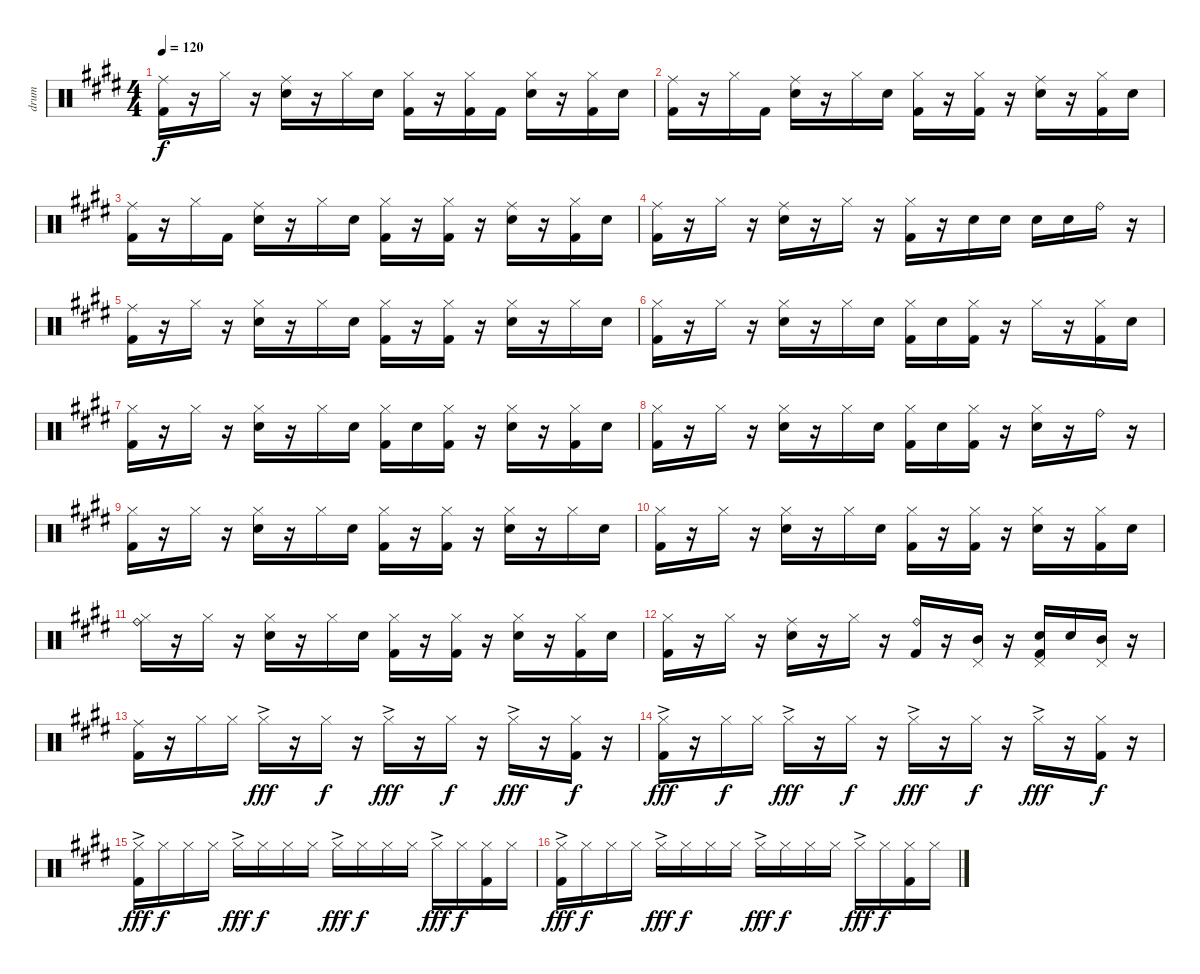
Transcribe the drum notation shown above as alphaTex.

\track ("drum" "drum") {instrument percussion}
\staff {score}
\articulation defaults
\ts (4 4)
\tempo 120
\clef neutral
\ks e
("Kick (hit) 2" "Ride (middle)").16{dy f} r.16 "Hi-Hat (closed)".16 r.16 ("Snare (hit) 2" "Ride (middle)").16 r.16 "Hi-Hat (closed)".16 "Snare (hit) 2".16 ("Kick (hit) 2" "Hi-Hat (closed)").16 r.16 ("Kick (hit) 2" "Hi-Hat (closed)").16 "Kick (hit) 2".16 ("Snare (hit) 2" "Hi-Hat (closed)").16 r.16 ("Kick (hit) 2" "Hi-Hat (closed)").16 "Snare (hit) 2".16 |
("Kick (hit) 2" "Ride (middle)").16 r.16 "Hi-Hat (closed)".16 "Kick (hit) 2".16 ("Snare (hit) 2" "Ride (middle)").16 r.16 "Hi-Hat (closed)".16 "Snare (hit) 2".16 ("Kick (hit) 2" "Hi-Hat (closed)").16 r.16 ("Kick (hit) 2" "Hi-Hat (closed)").16 r.16 ("Snare (hit) 2" "Ride (middle)").16 r.16 ("Kick (hit) 2" "Hi-Hat (closed)").16 "Snare (hit) 2".16 |
("Kick (hit) 2" "Ride (middle)").16 r.16 "Hi-Hat (closed)".16 "Kick (hit) 2".16 ("Snare (hit) 2" "Ride (middle)").16 r.16 "Hi-Hat (closed)".16 "Snare (hit) 2".16 ("Kick (hit) 2" "Hi-Hat (closed)").16 r.16 ("Kick (hit) 2" "Hi-Hat (closed)").16 r.16 ("Snare (hit) 2" "Ride (middle)").16 r.16 ("Kick (hit) 2" "Hi-Hat (closed)").16 "Snare (hit) 2".16 |
("Kick (hit) 2" "Ride (middle)").16 r.16 "Hi-Hat (closed)".16 r.16 ("Snare (hit) 2" "Ride (middle)").16 r.16 "Hi-Hat (closed)".16 r.16 ("Kick (hit) 2" "Hi-Hat (closed)").16 r.16 "Snare (hit) 2".16 "Snare (hit) 2".16 "Snare (hit) 2".16 "Snare (hit) 2".16 "Ride (bell)".16 r.16 |
("Kick (hit) 2" "Ride (middle)").16 r.16 "Hi-Hat (closed)".16 r.16 ("Snare (hit) 2" "Hi-Hat (closed)").16 r.16 "Hi-Hat (closed)".16 "Snare (hit) 2".16 ("Kick (hit) 2" "Hi-Hat (closed)").16 r.16 ("Kick (hit) 2" "Hi-Hat (closed)").16 r.16 ("Snare (hit) 2" "Hi-Hat (closed)").16 r.16 "Hi-Hat (closed)".16 "Snare (hit) 2".16 |
("Kick (hit) 2" "Hi-Hat (closed)").16 r.16 "Hi-Hat (closed)".16 r.16 ("Snare (hit) 2" "Hi-Hat (closed)").16 r.16 "Hi-Hat (closed)".16 "Snare (hit) 2".16 ("Kick (hit) 2" "Hi-Hat (closed)").16 "Snare (hit) 2".16 ("Kick (hit) 2" "Hi-Hat (closed)").16 r.16 "Hi-Hat (closed)".16 r.16 ("Kick (hit) 2" "Hi-Hat (closed)").16 "Snare (hit) 2".16 |
("Kick (hit) 2" "Hi-Hat (closed)").16 r.16 "Hi-Hat (closed)".16 r.16 ("Snare (hit) 2" "Hi-Hat (closed)").16 r.16 "Hi-Hat (closed)".16 "Snare (hit) 2".16 ("Kick (hit) 2" "Hi-Hat (closed)").16 "Snare (hit) 2".16 ("Kick (hit) 2" "Hi-Hat (closed)").16 r.16 ("Snare (hit) 2" "Hi-Hat (closed)").16 r.16 ("Kick (hit) 2" "Hi-Hat (closed)").16 "Snare (hit) 2".16 |
("Kick (hit) 2" "Hi-Hat (closed)").16 r.16 "Hi-Hat (closed)".16 r.16 ("Snare (hit) 2" "Hi-Hat (closed)").16 r.16 "Hi-Hat (closed)".16 "Snare (hit) 2".16 ("Kick (hit) 2" "Hi-Hat (closed)").16 "Snare (hit) 2".16 ("Kick (hit) 2" "Hi-Hat (closed)").16 r.16 ("Snare (hit) 2" "Hi-Hat (closed)").16 r.16 "Ride (bell)".16 r.16 |
("Kick (hit) 2" "Hi-Hat (closed)").16 r.16 "Hi-Hat (closed)".16 r.16 ("Snare (hit) 2" "Hi-Hat (closed)").16 r.16 "Hi-Hat (closed)".16 "Snare (hit) 2".16 ("Kick (hit) 2" "Hi-Hat (closed)").16 r.16 ("Kick (hit) 2" "Hi-Hat (closed)").16 r.16 ("Snare (hit) 2" "Hi-Hat (closed)").16 r.16 "Hi-Hat (closed)".16 "Snare (hit) 2".16 |
("Kick (hit) 2" "Hi-Hat (closed)").16 r.16 "Hi-Hat (closed)".16 r.16 ("Snare (hit) 2" "Hi-Hat (closed)").16 r.16 "Hi-Hat (closed)".16 "Snare (hit) 2".16 ("Kick (hit) 2" "Hi-Hat (closed)").16 r.16 ("Kick (hit) 2" "Hi-Hat (closed)").16 r.16 ("Snare (hit) 2" "Hi-Hat (closed)").16 r.16 ("Kick (hit) 2" "Hi-Hat (closed)").16 "Snare (hit) 2".16 |
("Ride (bell)" "Hi-Hat (closed)").16 r.16 "Hi-Hat (closed)".16 r.16 ("Snare (hit) 2" "Hi-Hat (closed)").16 r.16 "Hi-Hat (closed)".16 "Snare (hit) 2".16 ("Kick (hit) 2" "Hi-Hat (closed)").16 r.16 ("Kick (hit) 2" "Hi-Hat (closed)").16 r.16 ("Snare (hit) 2" "Hi-Hat (closed)").16 r.16 ("Kick (hit) 2" "Hi-Hat (closed)").16 "Snare (hit) 2".16 |
("Kick (hit) 2" "Hi-Hat (closed)").16 r.16 "Hi-Hat (closed)".16 r.16 ("Snare (hit) 2" "Ride (middle)").16 r.16 "Hi-Hat (closed)".16 r.16 ("Kick (hit) 2" "Ride (bell)").16 r.16 ("Mid Tom (hit)" "Pedal Hi-Hat (hit)").16 r.16 ("Snare (hit) 2" "Kick (hit) 2" "Pedal Hi-Hat (hit)").16 "Snare (hit) 2".16 ("Mid Tom (hit)" "Pedal Hi-Hat (hit)").16 r.16 |
("Kick (hit) 2" "Ride (middle)").16 r.16 "Hi-Hat (closed)".16 "Hi-Hat (closed)".16 "Hi-Hat (closed)"{ac}.16{dy fff} r.16 "Hi-Hat (closed)".16{dy f} r.16 "Hi-Hat (closed)"{ac}.16{dy fff} r.16 "Hi-Hat (closed)".16{dy f} r.16 "Hi-Hat (closed)"{ac}.16{dy fff} r.16 ("Kick (hit) 2" "Hi-Hat (closed)").16{dy f} r.16 |
("Kick (hit) 2" "Hi-Hat (closed)"{ac}).16{dy fff} r.16 "Hi-Hat (closed)".16{dy f} "Hi-Hat (closed)".16 "Hi-Hat (closed)"{ac}.16{dy fff} r.16 "Hi-Hat (closed)".16{dy f} r.16 "Hi-Hat (closed)"{ac}.16{dy fff} r.16 "Hi-Hat (closed)".16{dy f} r.16 "Hi-Hat (closed)"{ac}.16{dy fff} r.16 ("Kick (hit) 2" "Hi-Hat (closed)").16{dy f} r.16 |
("Kick (hit) 2" "Hi-Hat (closed)"{ac}).16{dy fff} "Hi-Hat (closed)".16{dy f} "Hi-Hat (closed)".16 "Hi-Hat (closed)".16 "Hi-Hat (closed)"{ac}.16{dy fff} "Hi-Hat (closed)".16{dy f} "Hi-Hat (closed)".16 "Hi-Hat (closed)".16 "Hi-Hat (closed)"{ac}.16{dy fff} "Hi-Hat (closed)".16{dy f} "Hi-Hat (closed)".16 "Hi-Hat (closed)".16 "Hi-Hat (closed)"{ac}.16{dy fff} "Hi-Hat (closed)".16{dy f} ("Kick (hit) 2" "Hi-Hat (closed)").16 "Hi-Hat (closed)".16 |
("Kick (hit) 2" "Hi-Hat (closed)"{ac}).16{dy fff} "Hi-Hat (closed)".16{dy f} "Hi-Hat (closed)".16 "Hi-Hat (closed)".16 "Hi-Hat (closed)"{ac}.16{dy fff} "Hi-Hat (closed)".16{dy f} "Hi-Hat (closed)".16 "Hi-Hat (closed)".16 "Hi-Hat (closed)"{ac}.16{dy fff} "Hi-Hat (closed)".16{dy f} "Hi-Hat (closed)".16 "Hi-Hat (closed)".16 "Hi-Hat (closed)"{ac}.16{dy fff} "Hi-Hat (closed)".16{dy f} ("Kick (hit) 2" "Hi-Hat (closed)").16 "Hi-Hat (closed)".16
